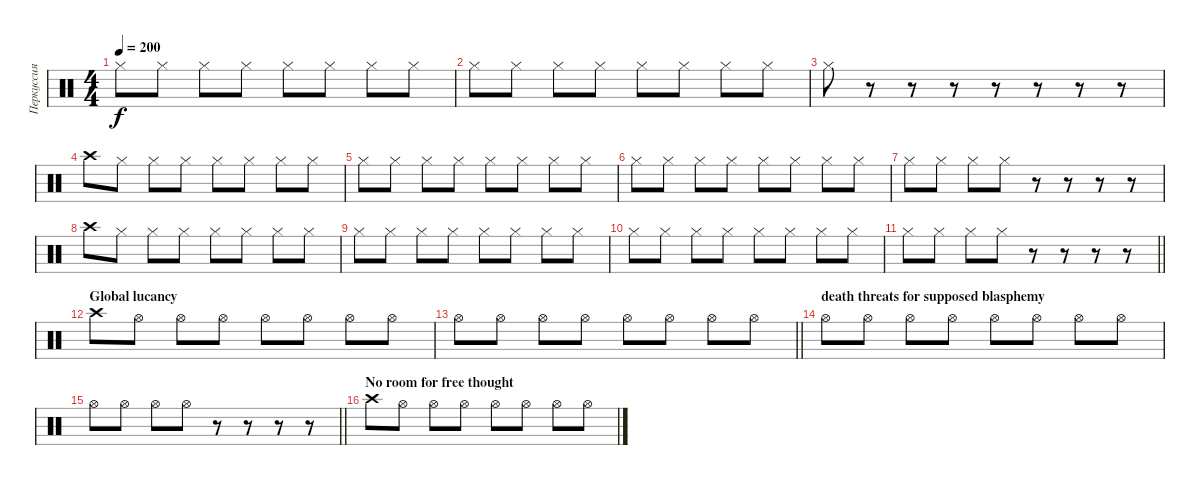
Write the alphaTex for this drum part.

\track ("Перкуссия" "Перкуссия") {instrument percussion}
\staff {score}
\articulation defaults
\ts (4 4)
\tempo 200
\clef neutral
\ks c "Hi-Hat (closed)".8{dy f} "Hi-Hat (closed)".8 "Hi-Hat (closed)".8 "Hi-Hat (closed)".8 "Hi-Hat (closed)".8 "Hi-Hat (closed)".8 "Hi-Hat (closed)".8 "Hi-Hat (closed)".8
|
"Hi-Hat (closed)".8 "Hi-Hat (closed)".8 "Hi-Hat (closed)".8 "Hi-Hat (closed)".8 "Hi-Hat (closed)".8 "Hi-Hat (closed)".8 "Hi-Hat (closed)".8 "Hi-Hat (closed)".8 |
"Hi-Hat (closed)".8 r.8 r.8 r.8 r.8 r.8 r.8 r.8 |
"Crash high (hit)".8 "Hi-Hat (closed)".8 "Hi-Hat (closed)".8 "Hi-Hat (closed)".8 "Hi-Hat (closed)".8 "Hi-Hat (closed)".8 "Hi-Hat (closed)".8 "Hi-Hat (closed)".8 |
"Hi-Hat (closed)".8 "Hi-Hat (closed)".8 "Hi-Hat (closed)".8 "Hi-Hat (closed)".8 "Hi-Hat (closed)".8 "Hi-Hat (closed)".8 "Hi-Hat (closed)".8 "Hi-Hat (closed)".8 |
"Hi-Hat (closed)".8 "Hi-Hat (closed)".8 "Hi-Hat (closed)".8 "Hi-Hat (closed)".8 "Hi-Hat (closed)".8 "Hi-Hat (closed)".8 "Hi-Hat (closed)".8 "Hi-Hat (closed)".8 |
"Hi-Hat (closed)".8 "Hi-Hat (closed)".8 "Hi-Hat (closed)".8 "Hi-Hat (closed)".8 r.8 r.8 r.8 r.8 |
"Crash high (hit)".8 "Hi-Hat (closed)".8 "Hi-Hat (closed)".8 "Hi-Hat (closed)".8 "Hi-Hat (closed)".8 "Hi-Hat (closed)".8 "Hi-Hat (closed)".8 "Hi-Hat (closed)".8 |
"Hi-Hat (closed)".8 "Hi-Hat (closed)".8 "Hi-Hat (closed)".8 "Hi-Hat (closed)".8 "Hi-Hat (closed)".8 "Hi-Hat (closed)".8 "Hi-Hat (closed)".8 "Hi-Hat (closed)".8 |
"Hi-Hat (closed)".8 "Hi-Hat (closed)".8 "Hi-Hat (closed)".8 "Hi-Hat (closed)".8 "Hi-Hat (closed)".8 "Hi-Hat (closed)".8 "Hi-Hat (closed)".8 "Hi-Hat (closed)".8 |
\barLineRight lightlight "Hi-Hat (closed)".8 "Hi-Hat (closed)".8 "Hi-Hat (closed)".8 "Hi-Hat (closed)".8
r.8 r.8 r.8 r.8 |
\section ("" "Global lucancy")
"Crash high (hit)".8 "Hi-Hat (open)".8 "Hi-Hat (open)".8 "Hi-Hat (open)".8 "Hi-Hat (open)".8 "Hi-Hat (open)".8 "Hi-Hat (open)".8 "Hi-Hat (open)".8 |
\barLineRight lightlight "Hi-Hat (open)".8 "Hi-Hat (open)".8 "Hi-Hat (open)".8 "Hi-Hat (open)".8 "Hi-Hat (open)".8 "Hi-Hat (open)".8 "Hi-Hat (open)".8 "Hi-Hat (open)".8
|
\section ("" "death threats for supposed blasphemy")
"Hi-Hat (open)".8 "Hi-Hat (open)".8 "Hi-Hat (open)".8 "Hi-Hat (open)".8 "Hi-Hat (open)".8 "Hi-Hat (open)".8 "Hi-Hat (open)".8 "Hi-Hat (open)".8 |
\barLineRight lightlight "Hi-Hat (open)".8 "Hi-Hat (open)".8 "Hi-Hat (open)".8 "Hi-Hat (open)".8
r.8 r.8 r.8 r.8 |
\section ("" "No room for free thought")
"Crash high (hit)".8 "Hi-Hat (open)".8 "Hi-Hat (open)".8 "Hi-Hat (open)".8 "Hi-Hat (open)".8 "Hi-Hat (open)".8 "Hi-Hat (open)".8 "Hi-Hat (open)".8
